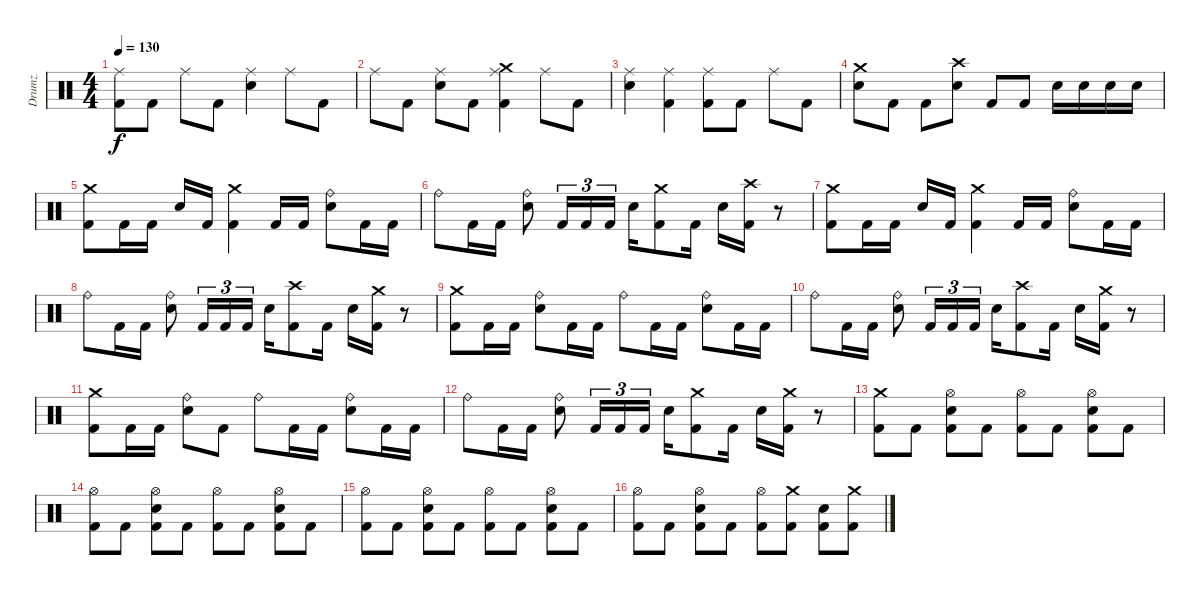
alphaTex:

\track ("Drumz" "Drumz") {instrument percussion}
\staff {score}
\articulation defaults
\ts (4 4)
\tempo 130
\clef neutral
\ks c
("Kick (hit) 2" "Ride (middle)").8{dy f} "Kick (hit) 2".8 "Ride (middle)".8 "Kick (hit) 2".8 ("Snare (hit) 2" "Ride (middle)").4 "Ride (middle)".8 "Kick (hit) 2".8 |
"Ride (middle)".8 "Kick (hit) 2".8 ("Snare (hit) 2" "Ride (middle)").8 "Kick (hit) 2".8 ("Kick (hit) 2" "Ride (middle)" "Crash medium (hit)").4 "Ride (middle)".8 "Kick (hit) 2".8 |
("Snare (hit) 2" "Ride (middle)").4 ("Kick (hit) 2" "Ride (middle)").4 ("Kick (hit) 2" "Ride (middle)").8 "Kick (hit) 2".8 "Ride (middle)".8 "Kick (hit) 2".8 |
("Snare (hit) 2" "Crash medium (hit)").8 "Kick (hit) 2".8 "Kick (hit) 2".8 ("Snare (hit) 2" "Crash high (hit)").8 "Kick (hit) 2".8 "Kick (hit) 2".8 "Snare (hit) 2".16 "Snare (hit) 2".16 "Snare (hit) 2".16 "Snare (hit) 2".16 |
("Kick (hit) 2" "Crash medium (hit)").8 "Kick (hit) 2".16 "Kick (hit) 2".16 "Snare (hit) 2".16 "Kick (hit) 2".16 ("Kick (hit) 2" "Crash medium (hit)").4 "Kick (hit) 2".16 "Kick (hit) 2".16 ("Snare (hit) 2" "Ride (bell)").8 "Kick (hit) 2".16 "Kick (hit) 2".16 |
"Ride (bell)".8 "Kick (hit) 2".16 "Kick (hit) 2".16 ("Snare (hit) 2" "Ride (bell)").8 "Kick (hit) 2".16{tu (3 2)} "Kick (hit) 2".16{tu (3 2)} "Kick (hit) 2".16{tu (3 2)} "Snare (hit) 2".16 ("Kick (hit) 2" "Crash medium (hit)").8 "Kick (hit) 2".16 "Snare (hit) 2".16 ("Kick (hit) 2" "Crash high (hit)").16 r.8 |
("Kick (hit) 2" "Crash medium (hit)").8 "Kick (hit) 2".16 "Kick (hit) 2".16 "Snare (hit) 2".16 "Kick (hit) 2".16 ("Kick (hit) 2" "Crash medium (hit)").4 "Kick (hit) 2".16 "Kick (hit) 2".16 ("Snare (hit) 2" "Ride (bell)").8 "Kick (hit) 2".16 "Kick (hit) 2".16 |
"Ride (bell)".8 "Kick (hit) 2".16 "Kick (hit) 2".16 ("Snare (hit) 2" "Ride (bell)").8 "Kick (hit) 2".16{tu (3 2)} "Kick (hit) 2".16{tu (3 2)} "Kick (hit) 2".16{tu (3 2)} "Snare (hit) 2".16 ("Kick (hit) 2" "Crash high (hit)").8 "Kick (hit) 2".16 "Snare (hit) 2".16 ("Kick (hit) 2" "Crash medium (hit)").16 r.8 |
("Kick (hit) 2" "Crash medium (hit)").8 "Kick (hit) 2".16 "Kick (hit) 2".16 ("Snare (hit) 2" "Ride (bell)").8 "Kick (hit) 2".16 "Kick (hit) 2".16 "Ride (bell)".8 "Kick (hit) 2".16 "Kick (hit) 2".16 ("Snare (hit) 2" "Ride (bell)").8 "Kick (hit) 2".16 "Kick (hit) 2".16 |
"Ride (bell)".8 "Kick (hit) 2".16 "Kick (hit) 2".16 ("Snare (hit) 2" "Ride (bell)").8 "Kick (hit) 2".16{tu (3 2)} "Kick (hit) 2".16{tu (3 2)} "Kick (hit) 2".16{tu (3 2)} "Snare (hit) 2".16 ("Kick (hit) 2" "Crash high (hit)").8 "Kick (hit) 2".16 "Snare (hit) 2".16 ("Kick (hit) 2" "Crash medium (hit)").16 r.8 |
("Kick (hit) 2" "Crash medium (hit)").8 "Kick (hit) 2".16 "Kick (hit) 2".16 ("Snare (hit) 2" "Ride (bell)").8 "Kick (hit) 2".8 "Ride (bell)".8 "Kick (hit) 2".16 "Kick (hit) 2".16 ("Snare (hit) 2" "Ride (bell)").8 "Kick (hit) 2".16 "Kick (hit) 2".16 |
"Ride (bell)".8 "Kick (hit) 2".16 "Kick (hit) 2".16 ("Snare (hit) 2" "Ride (bell)").8 "Kick (hit) 2".16{tu (3 2)} "Kick (hit) 2".16{tu (3 2)} "Kick (hit) 2".16{tu (3 2)} "Snare (hit) 2".16 ("Kick (hit) 2" "Crash medium (hit)").8 "Kick (hit) 2".16 "Snare (hit) 2".16 ("Kick (hit) 2" "Crash medium (hit)").16 r.8 |
("Kick (hit) 2" "Crash medium (hit)").8 "Kick (hit) 2".8 ("Kick (hit) 2" "Snare (hit) 2" "Hi-Hat (open)").8 "Kick (hit) 2".8 ("Kick (hit) 2" "Hi-Hat (open)").8 "Kick (hit) 2".8 ("Kick (hit) 2" "Snare (hit) 2" "Hi-Hat (open)").8 "Kick (hit) 2".8 |
("Kick (hit) 2" "Hi-Hat (open)").8 "Kick (hit) 2".8 ("Kick (hit) 2" "Snare (hit) 2" "Hi-Hat (open)").8 "Kick (hit) 2".8 ("Kick (hit) 2" "Hi-Hat (open)").8 "Kick (hit) 2".8 ("Kick (hit) 2" "Snare (hit) 2" "Hi-Hat (open)").8 "Kick (hit) 2".8 |
("Kick (hit) 2" "Hi-Hat (open)").8 "Kick (hit) 2".8 ("Kick (hit) 2" "Snare (hit) 2" "Hi-Hat (open)").8 "Kick (hit) 2".8 ("Kick (hit) 2" "Hi-Hat (open)").8 "Kick (hit) 2".8 ("Kick (hit) 2" "Snare (hit) 2" "Hi-Hat (open)").8 "Kick (hit) 2".8 |
("Kick (hit) 2" "Hi-Hat (open)").8 "Kick (hit) 2".8 ("Kick (hit) 2" "Snare (hit) 2" "Hi-Hat (open)").8 "Kick (hit) 2".8 ("Kick (hit) 2" "Hi-Hat (open)").8 ("Kick (hit) 2" "Crash medium (hit)").8 ("Kick (hit) 2" "Snare (hit) 2").8 ("Kick (hit) 2" "Crash medium (hit)").8
